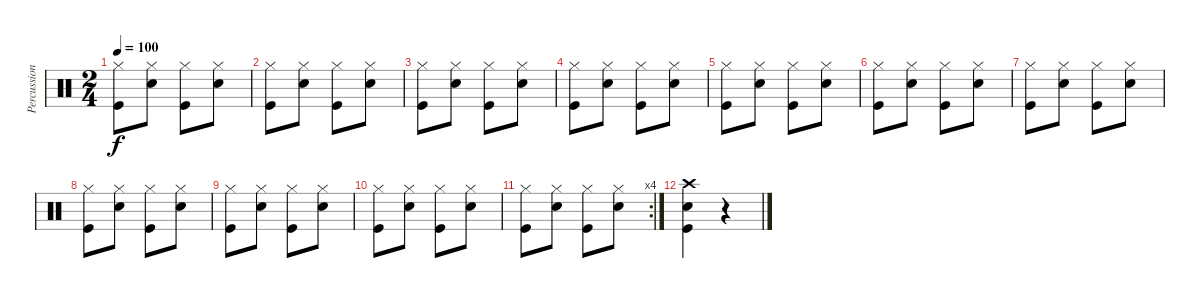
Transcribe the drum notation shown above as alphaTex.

\track ("Percussion" "Percussion") {instrument percussion}
\staff {score}
\articulation defaults
\ts (2 4)
\tempo 100
\clef neutral
\ks c
("Hi-Hat (closed)" "Kick (hit)").8{dy f} ("Hi-Hat (closed)" "Snare (hit) 2").8 ("Hi-Hat (closed)" "Kick (hit)").8 ("Hi-Hat (closed)" "Snare (hit) 2").8 |
("Hi-Hat (closed)" "Kick (hit)").8 ("Hi-Hat (closed)" "Snare (hit) 2").8 ("Hi-Hat (closed)" "Kick (hit)").8 ("Hi-Hat (closed)" "Snare (hit) 2").8 |
("Hi-Hat (closed)" "Kick (hit)").8 ("Hi-Hat (closed)" "Snare (hit) 2").8 ("Hi-Hat (closed)" "Kick (hit)").8 ("Hi-Hat (closed)" "Snare (hit) 2").8 |
("Hi-Hat (closed)" "Kick (hit)").8 ("Hi-Hat (closed)" "Snare (hit) 2").8 ("Hi-Hat (closed)" "Kick (hit)").8 ("Hi-Hat (closed)" "Snare (hit) 2").8 |
("Hi-Hat (closed)" "Kick (hit)").8 ("Hi-Hat (closed)" "Snare (hit) 2").8 ("Hi-Hat (closed)" "Kick (hit)").8 ("Hi-Hat (closed)" "Snare (hit) 2").8 |
("Hi-Hat (closed)" "Kick (hit)").8 ("Hi-Hat (closed)" "Snare (hit) 2").8 ("Hi-Hat (closed)" "Kick (hit)").8 ("Hi-Hat (closed)" "Snare (hit) 2").8 |
("Hi-Hat (closed)" "Kick (hit)").8 ("Hi-Hat (closed)" "Snare (hit) 2").8 ("Hi-Hat (closed)" "Kick (hit)").8 ("Hi-Hat (closed)" "Snare (hit) 2").8 |
("Hi-Hat (closed)" "Kick (hit)").8 ("Hi-Hat (closed)" "Snare (hit) 2").8 ("Hi-Hat (closed)" "Kick (hit)").8 ("Hi-Hat (closed)" "Snare (hit) 2").8 |
("Hi-Hat (closed)" "Kick (hit)").8 ("Hi-Hat (closed)" "Snare (hit) 2").8 ("Hi-Hat (closed)" "Kick (hit)").8 ("Hi-Hat (closed)" "Snare (hit) 2").8 |
("Hi-Hat (closed)" "Kick (hit)").8 ("Hi-Hat (closed)" "Snare (hit) 2").8 ("Hi-Hat (closed)" "Kick (hit)").8 ("Hi-Hat (closed)" "Snare (hit) 2").8 |
\rc 4
("Hi-Hat (closed)" "Kick (hit)").8 ("Hi-Hat (closed)" "Snare (hit) 2").8 ("Hi-Hat (closed)" "Kick (hit)").8 ("Hi-Hat (closed)" "Snare (hit) 2").8 |
("Crash high (hit)" "Snare (hit) 2" "Kick (hit)").4 r.4
